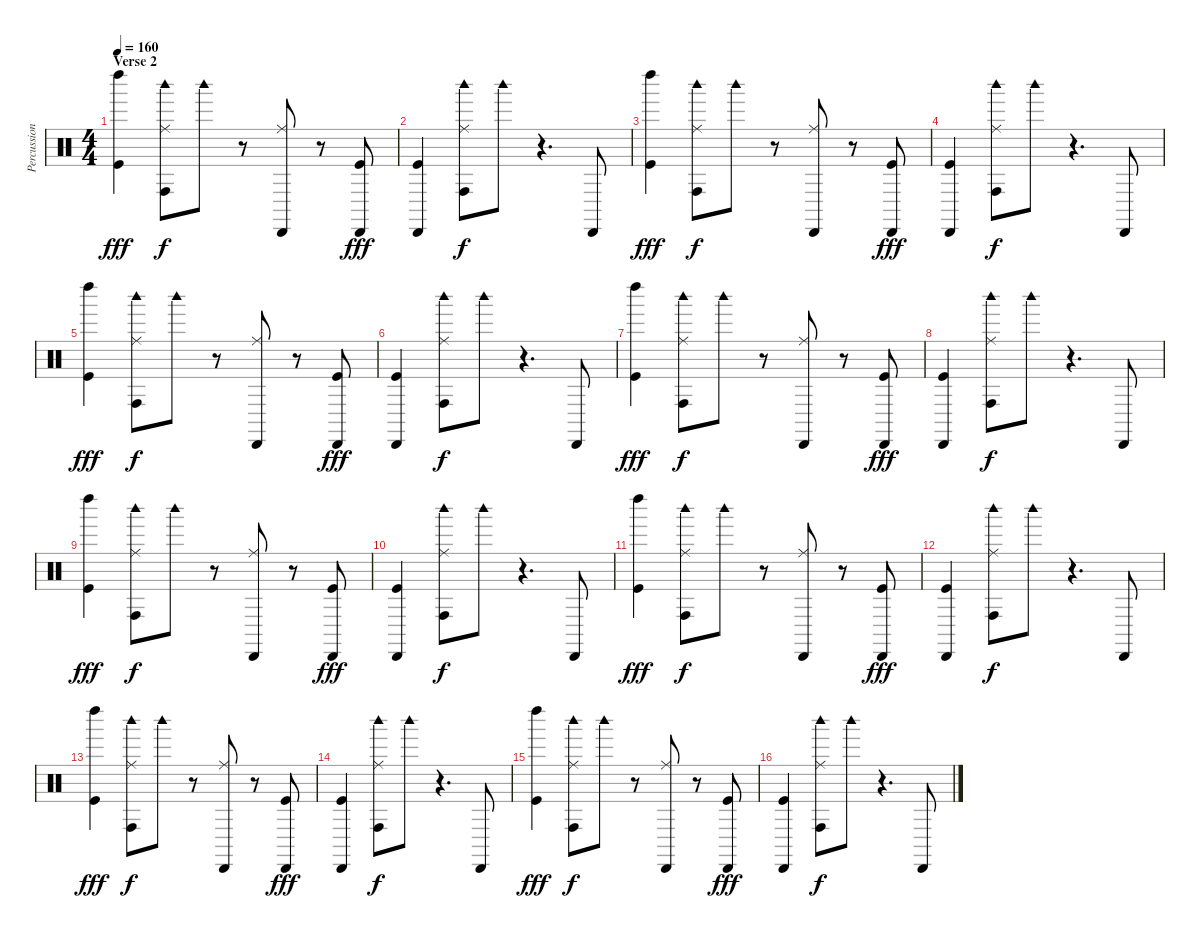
\track ("Percussion" "Percussion") {instrument percussion}
\staff {score}
\articulation defaults
\ts (4 4)
\section ("" "Verse 2")
\tempo 160
\clef neutral
\ks c
("Left Maraca (hit)" "Kick (hit)").4{dy fff} ("Conga high (hit)" "Ride (middle)" "Woodblock high (hit)").8{dy f} "Woodblock high (hit)".8 r.8 ("Cabasa (hit)" "Ride (middle)").8 r.8 ("Cabasa (hit)" "Kick (hit)").8{dy fff} |
("Cabasa (hit)" "Kick (hit)").4 ("Conga high (hit)" "Ride (middle)" "Woodblock high (hit)").8{dy f} "Woodblock high (hit)".8 r.4{d} "Cabasa (hit)".8 |
("Left Maraca (hit)" "Kick (hit)").4{dy fff} ("Conga high (hit)" "Ride (middle)" "Woodblock high (hit)").8{dy f} "Woodblock high (hit)".8 r.8 ("Cabasa (hit)" "Ride (middle)").8 r.8 ("Cabasa (hit)" "Kick (hit)").8{dy fff} |
("Cabasa (hit)" "Kick (hit)").4 ("Conga high (hit)" "Ride (middle)" "Woodblock high (hit)").8{dy f} "Woodblock high (hit)".8 r.4{d} "Cabasa (hit)".8 |
("Left Maraca (hit)" "Kick (hit)").4{dy fff} ("Conga high (hit)" "Ride (middle)" "Woodblock high (hit)").8{dy f} "Woodblock high (hit)".8 r.8 ("Cabasa (hit)" "Ride (middle)").8 r.8 ("Cabasa (hit)" "Kick (hit)").8{dy fff} |
("Cabasa (hit)" "Kick (hit)").4 ("Conga high (hit)" "Ride (middle)" "Woodblock high (hit)").8{dy f} "Woodblock high (hit)".8 r.4{d} "Cabasa (hit)".8 |
("Left Maraca (hit)" "Kick (hit)").4{dy fff} ("Conga high (hit)" "Ride (middle)" "Woodblock high (hit)").8{dy f} "Woodblock high (hit)".8 r.8 ("Cabasa (hit)" "Ride (middle)").8 r.8 ("Cabasa (hit)" "Kick (hit)").8{dy fff} |
("Cabasa (hit)" "Kick (hit)").4 ("Conga high (hit)" "Ride (middle)" "Woodblock high (hit)").8{dy f} "Woodblock high (hit)".8 r.4{d} "Cabasa (hit)".8 |
("Left Maraca (hit)" "Kick (hit)").4{dy fff} ("Conga high (hit)" "Ride (middle)" "Woodblock high (hit)").8{dy f} "Woodblock high (hit)".8 r.8 ("Cabasa (hit)" "Ride (middle)").8 r.8 ("Cabasa (hit)" "Kick (hit)").8{dy fff} |
("Cabasa (hit)" "Kick (hit)").4 ("Conga high (hit)" "Ride (middle)" "Woodblock high (hit)").8{dy f} "Woodblock high (hit)".8 r.4{d} "Cabasa (hit)".8 |
("Left Maraca (hit)" "Kick (hit)").4{dy fff} ("Conga high (hit)" "Ride (middle)" "Woodblock high (hit)").8{dy f} "Woodblock high (hit)".8 r.8 ("Cabasa (hit)" "Ride (middle)").8 r.8 ("Cabasa (hit)" "Kick (hit)").8{dy fff} |
("Cabasa (hit)" "Kick (hit)").4 ("Conga high (hit)" "Ride (middle)" "Woodblock high (hit)").8{dy f} "Woodblock high (hit)".8 r.4{d} "Cabasa (hit)".8 |
("Left Maraca (hit)" "Kick (hit)").4{dy fff} ("Conga high (hit)" "Ride (middle)" "Woodblock high (hit)").8{dy f} "Woodblock high (hit)".8 r.8 ("Cabasa (hit)" "Ride (middle)").8 r.8 ("Cabasa (hit)" "Kick (hit)").8{dy fff} |
("Cabasa (hit)" "Kick (hit)").4 ("Conga high (hit)" "Ride (middle)" "Woodblock high (hit)").8{dy f} "Woodblock high (hit)".8 r.4{d} "Cabasa (hit)".8 |
("Left Maraca (hit)" "Kick (hit)").4{dy fff} ("Conga high (hit)" "Ride (middle)" "Woodblock high (hit)").8{dy f} "Woodblock high (hit)".8 r.8 ("Cabasa (hit)" "Ride (middle)").8 r.8 ("Cabasa (hit)" "Kick (hit)").8{dy fff} |
("Cabasa (hit)" "Kick (hit)").4 ("Conga high (hit)" "Ride (middle)" "Woodblock high (hit)").8{dy f} "Woodblock high (hit)".8 r.4{d} "Cabasa (hit)".8
